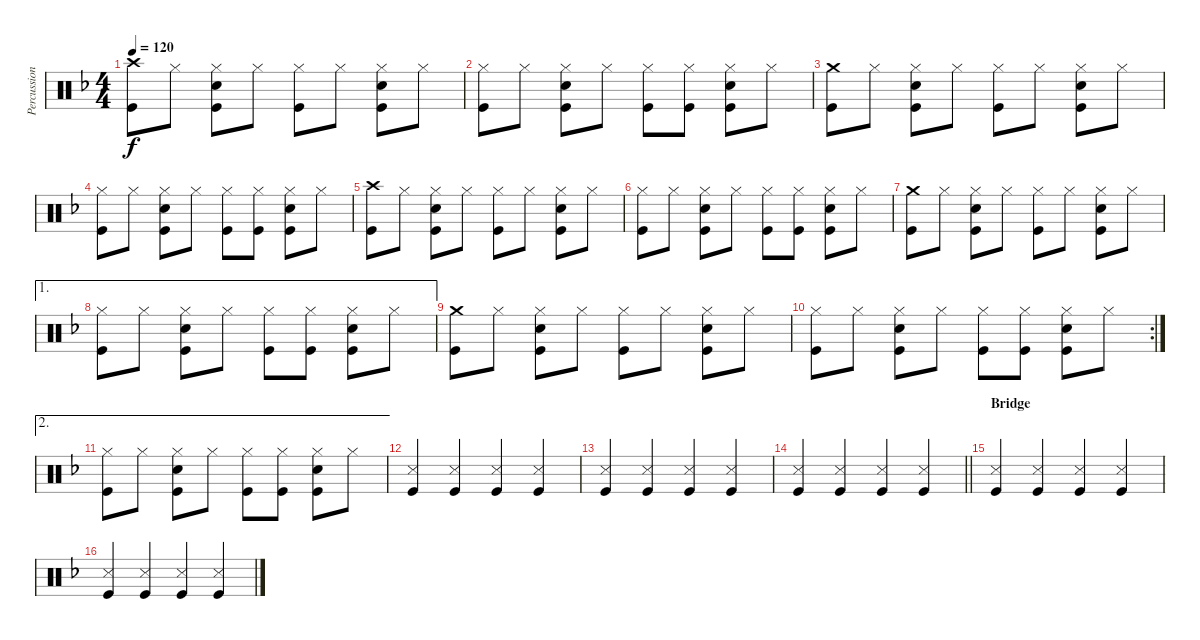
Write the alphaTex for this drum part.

\track ("Percussion" "Percussion") {instrument percussion}
\staff {score}
\articulation defaults
\ts (4 4)
\tempo 120
\clef neutral
\ks f
("Crash high (hit)" "Kick (hit)").8{dy f} "Hi-Hat (closed)".8 ("Hi-Hat (closed)" "Kick (hit)" "Electric Snare (hit)").8 "Hi-Hat (closed)".8 ("Hi-Hat (closed)" "Kick (hit)").8 "Hi-Hat (closed)".8 ("Hi-Hat (closed)" "Kick (hit)" "Electric Snare (hit)").8 "Hi-Hat (closed)".8 |
("Hi-Hat (closed)" "Kick (hit)").8 "Hi-Hat (closed)".8 ("Hi-Hat (closed)" "Kick (hit)" "Electric Snare (hit)").8 "Hi-Hat (closed)".8 ("Hi-Hat (closed)" "Kick (hit)").8 ("Hi-Hat (closed)" "Kick (hit)").8 ("Hi-Hat (closed)" "Kick (hit)" "Electric Snare (hit)").8 "Hi-Hat (closed)".8 |
("Crash medium (hit)" "Kick (hit)").8 "Hi-Hat (closed)".8 ("Hi-Hat (closed)" "Kick (hit)" "Electric Snare (hit)").8 "Hi-Hat (closed)".8 ("Hi-Hat (closed)" "Kick (hit)").8 "Hi-Hat (closed)".8 ("Hi-Hat (closed)" "Kick (hit)" "Electric Snare (hit)").8 "Hi-Hat (closed)".8 |
("Hi-Hat (closed)" "Kick (hit)").8 "Hi-Hat (closed)".8 ("Hi-Hat (closed)" "Kick (hit)" "Electric Snare (hit)").8 "Hi-Hat (closed)".8 ("Hi-Hat (closed)" "Kick (hit)").8 ("Hi-Hat (closed)" "Kick (hit)").8 ("Hi-Hat (closed)" "Kick (hit)" "Electric Snare (hit)").8 "Hi-Hat (closed)".8 |
("Crash high (hit)" "Kick (hit)").8 "Hi-Hat (closed)".8 ("Hi-Hat (closed)" "Kick (hit)" "Electric Snare (hit)").8 "Hi-Hat (closed)".8 ("Hi-Hat (closed)" "Kick (hit)").8 "Hi-Hat (closed)".8 ("Hi-Hat (closed)" "Kick (hit)" "Electric Snare (hit)").8 "Hi-Hat (closed)".8 |
("Hi-Hat (closed)" "Kick (hit)").8 "Hi-Hat (closed)".8 ("Hi-Hat (closed)" "Kick (hit)" "Electric Snare (hit)").8 "Hi-Hat (closed)".8 ("Hi-Hat (closed)" "Kick (hit)").8 ("Hi-Hat (closed)" "Kick (hit)").8 ("Hi-Hat (closed)" "Kick (hit)" "Electric Snare (hit)").8 "Hi-Hat (closed)".8 |
("Crash medium (hit)" "Kick (hit)").8 "Hi-Hat (closed)".8 ("Hi-Hat (closed)" "Kick (hit)" "Electric Snare (hit)").8 "Hi-Hat (closed)".8 ("Hi-Hat (closed)" "Kick (hit)").8 "Hi-Hat (closed)".8 ("Hi-Hat (closed)" "Kick (hit)" "Electric Snare (hit)").8 "Hi-Hat (closed)".8 |
\ae 1
("Hi-Hat (closed)" "Kick (hit)").8 "Hi-Hat (closed)".8 ("Hi-Hat (closed)" "Kick (hit)" "Electric Snare (hit)").8 "Hi-Hat (closed)".8 ("Hi-Hat (closed)" "Kick (hit)").8 ("Hi-Hat (closed)" "Kick (hit)").8 ("Hi-Hat (closed)" "Kick (hit)" "Electric Snare (hit)").8 "Hi-Hat (closed)".8 |
("Crash medium (hit)" "Kick (hit)").8 "Hi-Hat (closed)".8 ("Hi-Hat (closed)" "Kick (hit)" "Electric Snare (hit)").8 "Hi-Hat (closed)".8 ("Hi-Hat (closed)" "Kick (hit)").8 "Hi-Hat (closed)".8 ("Hi-Hat (closed)" "Kick (hit)" "Electric Snare (hit)").8 "Hi-Hat (closed)".8 |
\rc 2
("Hi-Hat (closed)" "Kick (hit)").8 "Hi-Hat (closed)".8 ("Hi-Hat (closed)" "Kick (hit)" "Electric Snare (hit)").8 "Hi-Hat (closed)".8 ("Hi-Hat (closed)" "Kick (hit)").8 ("Hi-Hat (closed)" "Kick (hit)").8 ("Hi-Hat (closed)" "Kick (hit)" "Electric Snare (hit)").8 "Hi-Hat (closed)".8 |
\ae 2
("Hi-Hat (closed)" "Kick (hit)").8 "Hi-Hat (closed)".8 ("Hi-Hat (closed)" "Kick (hit)" "Electric Snare (hit)").8 "Hi-Hat (closed)".8 ("Hi-Hat (closed)" "Kick (hit)").8 ("Hi-Hat (closed)" "Kick (hit)").8 ("Hi-Hat (closed)" "Kick (hit)" "Electric Snare (hit)").8 "Hi-Hat (closed)".8 |
("Kick (hit)" "Snare (side stick) 3").4 ("Kick (hit)" "Snare (side stick) 3").4 ("Kick (hit)" "Snare (side stick) 3").4 ("Kick (hit)" "Snare (side stick) 3").4 |
("Kick (hit)" "Snare (side stick) 3").4 ("Kick (hit)" "Snare (side stick) 3").4 ("Kick (hit)" "Snare (side stick) 3").4 ("Kick (hit)" "Snare (side stick) 3").4 |
\barLineRight lightlight
("Kick (hit)" "Snare (side stick) 3").4 ("Kick (hit)" "Snare (side stick) 3").4 ("Kick (hit)" "Snare (side stick) 3").4 ("Kick (hit)" "Snare (side stick) 3").4 |
\section ("" "Bridge")
("Kick (hit)" "Snare (side stick) 3").4 ("Kick (hit)" "Snare (side stick) 3").4 ("Kick (hit)" "Snare (side stick) 3").4 ("Kick (hit)" "Snare (side stick) 3").4 |
("Kick (hit)" "Snare (side stick) 3").4 ("Kick (hit)" "Snare (side stick) 3").4 ("Kick (hit)" "Snare (side stick) 3").4 ("Kick (hit)" "Snare (side stick) 3").4
